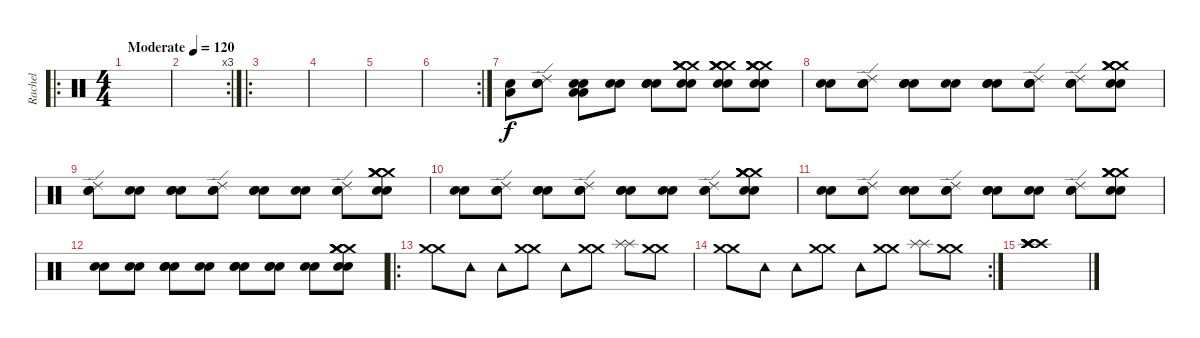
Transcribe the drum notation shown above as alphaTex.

\track ("Rachel" "Rachel") {instrument percussion}
\staff {score}
\articulation defaults
\ro
\ts (4 4)
\tempo (120 "Moderate")
\clef neutral
\ks c
|
\rc 3
|
\ro
|
|
|
\rc 2
|
("Low Floor Tom (hit)" "Electric Snare (hit)").8 ("Ride (edge) 2" "Electric Snare (hit)" "Electric Snare (hit)").8 ("Low Floor Tom (hit)" "Low Floor Tom (hit)" "Electric Snare (hit)" "Electric Snare (hit)").8 ("Electric Snare (hit)" "Electric Snare (hit)").8 ("Snare (hit)" "Electric Snare (hit)" "Electric Snare (hit)").8 ("Crash medium (hit)" "Crash medium (hit)" "Crash medium (hit)" "Crash medium (hit)" "Snare (hit)" "Snare (hit)").8 ("Crash medium (hit)" "Crash medium (hit)" "Crash medium (hit)" "Crash medium (hit)" "Snare (hit)" "Snare (hit)").8 ("Crash medium (hit)" "Crash medium (hit)" "Crash medium (hit)" "Crash medium (hit)" "Snare (hit)" "Snare (hit)").8 |
("Electric Snare (hit)" "Electric Snare (hit)").8 ("Ride (edge) 2" "Electric Snare (hit)" "Electric Snare (hit)").8 ("Snare (hit) 2" "Snare (hit) 2" "Electric Snare (hit)").8 ("Electric Snare (hit)" "Electric Snare (hit)").8 ("Snare (hit) 2" "Snare (hit) 2" "Electric Snare (hit)").8 ("Ride (edge) 2" "Electric Snare (hit)" "Electric Snare (hit)").8 ("Ride (edge) 2" "Electric Snare (hit)" "Electric Snare (hit)").8 ("Crash medium (hit)" "Crash medium (hit)" "Crash medium (hit)" "Crash medium (hit)" "Snare (hit) 2" "Snare (hit) 2").8 |
("Ride (edge) 2" "Electric Snare (hit)" "Electric Snare (hit)").8 ("Electric Snare (hit)" "Electric Snare (hit)").8 ("Snare (hit) 2" "Snare (hit) 2" "Electric Snare (hit)").8 ("Ride (edge) 2" "Electric Snare (hit)" "Electric Snare (hit)").8 ("Snare (hit) 2" "Snare (hit) 2" "Electric Snare (hit)").8 ("Electric Snare (hit)" "Electric Snare (hit)").8 ("Ride (edge) 2" "Electric Snare (hit)" "Electric Snare (hit)").8 ("Crash medium (hit)" "Crash medium (hit)" "Crash medium (hit)" "Crash medium (hit)" "Snare (hit) 2" "Snare (hit) 2").8 |
("Electric Snare (hit)" "Electric Snare (hit)").8 ("Ride (edge) 2" "Electric Snare (hit)" "Electric Snare (hit)").8 ("Snare (hit) 2" "Snare (hit) 2" "Electric Snare (hit)").8 ("Ride (edge) 2" "Electric Snare (hit)" "Electric Snare (hit)").8 ("Snare (hit) 2" "Snare (hit) 2" "Electric Snare (hit)").8 ("Electric Snare (hit)" "Electric Snare (hit)").8 ("Ride (edge) 2" "Electric Snare (hit)" "Electric Snare (hit)").8 ("Crash medium (hit)" "Crash medium (hit)" "Crash medium (hit)" "Crash medium (hit)" "Snare (hit) 2" "Snare (hit) 2").8 |
("Electric Snare (hit)" "Electric Snare (hit)").8 ("Ride (edge) 2" "Electric Snare (hit)" "Electric Snare (hit)").8 ("Snare (hit) 2" "Snare (hit) 2" "Electric Snare (hit)").8 ("Ride (edge) 2" "Electric Snare (hit)" "Electric Snare (hit)").8 ("Snare (hit) 2" "Snare (hit) 2" "Electric Snare (hit)").8 ("Electric Snare (hit)" "Electric Snare (hit)").8 ("Ride (edge) 2" "Electric Snare (hit)" "Electric Snare (hit)").8 ("Crash medium (hit)" "Crash medium (hit)" "Crash medium (hit)" "Crash medium (hit)" "Snare (hit) 2" "Snare (hit) 2").8 |
("Electric Snare (hit)" "Electric Snare (hit)").8 ("Electric Snare (hit)" "Electric Snare (hit)").8 ("Snare (hit) 2" "Snare (hit) 2" "Electric Snare (hit)").8 ("Electric Snare (hit)" "Electric Snare (hit)").8 ("Snare (hit) 2" "Snare (hit) 2" "Electric Snare (hit)").8 ("Electric Snare (hit)" "Electric Snare (hit)" "Electric Snare (hit)").8 ("Electric Snare (hit)" "Electric Snare (hit)").8 ("Crash medium (hit)" "Crash medium (hit)" "Crash medium (hit)" "Crash medium (hit)" "Snare (hit) 2" "Snare (hit) 2").8 |
\ro
("Crash medium (hit)" "Crash medium (hit)").8 "Tambourine (hit)".8 "Tambourine (hit)".8 ("Crash medium (hit)" "Crash medium (hit)").8 "Tambourine (hit)".8 ("Crash medium (hit)" "Crash medium (hit)").8 ("Splash (hit)" "Splash (hit)").8 ("Crash medium (hit)" "Crash medium (hit)").8 |
\rc 2
("Crash medium (hit)" "Crash medium (hit)").8 "Tambourine (hit)".8 "Tambourine (hit)".8 ("Crash medium (hit)" "Crash medium (hit)").8 "Tambourine (hit)".8 ("Crash medium (hit)" "Crash medium (hit)").8 ("Splash (hit)" "Splash (hit)").8 ("Crash medium (hit)" "Crash medium (hit)").8 |
("Crash high (hit)" "Crash high (hit)" "Crash high (hit)" "Crash high (hit)" "Crash high (hit)" "Crash high (hit)").1
